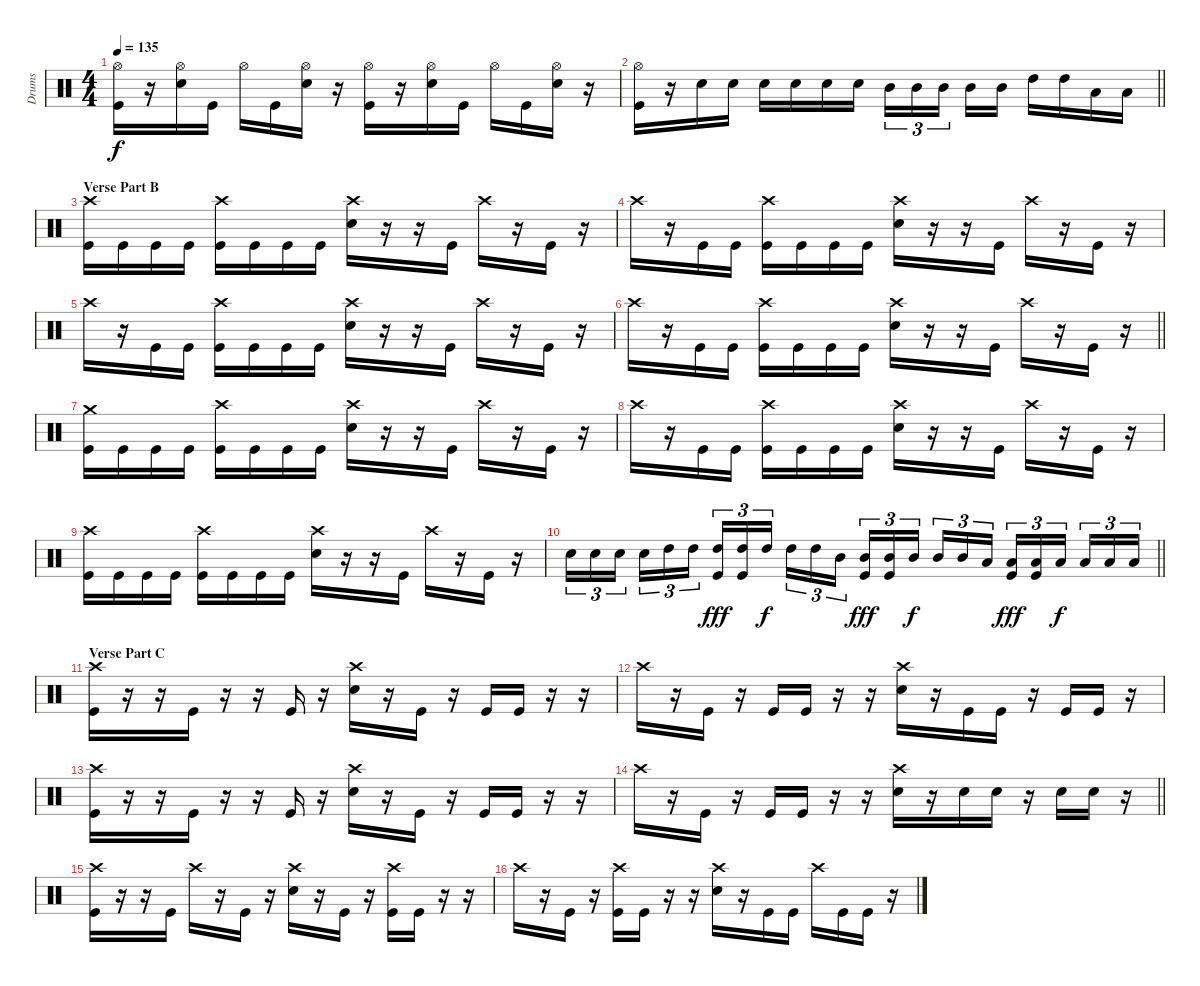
\track ("Drums" "Drums") {instrument percussion}
\staff {score}
\articulation defaults
\ts (4 4)
\tempo 135
\clef neutral
\ks c
("Hi-Hat (open)" "Kick (hit)").16{dy f} r.16 ("Hi-Hat (open)" "Snare (hit) 2").16 "Kick (hit)".16 "Hi-Hat (open)".16 "Kick (hit)".16 ("Hi-Hat (open)" "Snare (hit) 2").16 r.16 ("Hi-Hat (open)" "Kick (hit)").16 r.16 ("Hi-Hat (open)" "Snare (hit) 2").16 "Kick (hit)".16 "Hi-Hat (open)".16 "Kick (hit)".16 ("Hi-Hat (open)" "Snare (hit) 2").16 r.16 |
\barLineRight lightlight
("Hi-Hat (open)" "Kick (hit)").16 r.16 "Snare (hit) 2".16 "Snare (hit) 2".16 "Snare (hit) 2".16 "Snare (hit) 2".16 "Snare (hit) 2".16 "Snare (hit) 2".16 "Mid Tom (hit)".16{tu (3 2)} "Mid Tom (hit)".16{tu (3 2)} "Mid Tom (hit)".16{tu (3 2)} "Mid Tom (hit)".16 "Mid Tom (hit)".16 "High Tom (hit)".16 "High Tom (hit)".16 "Low Floor Tom (hit)".16 "Low Floor Tom (hit)".16 |
\section ("" "Verse Part B")
("Crash high (hit)" "Kick (hit)").16 "Kick (hit)".16 "Kick (hit)".16 "Kick (hit)".16 ("Crash high (hit)" "Kick (hit)").16 "Kick (hit)".16 "Kick (hit)".16 "Kick (hit)".16 ("Crash high (hit)" "Snare (hit) 2").16 r.16 r.16 "Kick (hit)".16 "Crash high (hit)".16 r.16 "Kick (hit)".16 r.16 |
"Crash high (hit)".16 r.16 "Kick (hit)".16 "Kick (hit)".16 ("Crash high (hit)" "Kick (hit)").16 "Kick (hit)".16 "Kick (hit)".16 "Kick (hit)".16 ("Crash high (hit)" "Snare (hit) 2").16 r.16 r.16 "Kick (hit)".16 "Crash high (hit)".16 r.16 "Kick (hit)".16 r.16 |
"Crash high (hit)".16 r.16 "Kick (hit)".16 "Kick (hit)".16 ("Crash high (hit)" "Kick (hit)").16 "Kick (hit)".16 "Kick (hit)".16 "Kick (hit)".16 ("Crash high (hit)" "Snare (hit) 2").16 r.16 r.16 "Kick (hit)".16 "Crash high (hit)".16 r.16 "Kick (hit)".16 r.16 |
\barLineRight lightlight "Crash high (hit)".16
r.16 "Kick (hit)".16 "Kick (hit)".16 ("Crash high (hit)" "Kick (hit)").16 "Kick (hit)".16 "Kick (hit)".16 "Kick (hit)".16 ("Crash high (hit)" "Snare (hit) 2").16 r.16 r.16 "Kick (hit)".16 "Crash high (hit)".16 r.16 "Kick (hit)".16 r.16 |
("Crash medium (hit)" "Kick (hit)").16 "Kick (hit)".16 "Kick (hit)".16 "Kick (hit)".16 ("Crash high (hit)" "Kick (hit)").16 "Kick (hit)".16 "Kick (hit)".16 "Kick (hit)".16 ("Crash high (hit)" "Snare (hit) 2").16 r.16 r.16 "Kick (hit)".16 "Crash high (hit)".16 r.16 "Kick (hit)".16 r.16 |
"Crash high (hit)".16 r.16 "Kick (hit)".16 "Kick (hit)".16 ("Crash high (hit)" "Kick (hit)").16 "Kick (hit)".16 "Kick (hit)".16 "Kick (hit)".16 ("Crash high (hit)" "Snare (hit) 2").16 r.16 r.16 "Kick (hit)".16 "Crash high (hit)".16 r.16 "Kick (hit)".16 r.16 |
("Crash high (hit)" "Kick (hit)").16 "Kick (hit)".16 "Kick (hit)".16 "Kick (hit)".16 ("Crash high (hit)" "Kick (hit)").16 "Kick (hit)".16 "Kick (hit)".16 "Kick (hit)".16 ("Crash high (hit)" "Snare (hit) 2").16 r.16 r.16 "Kick (hit)".16 "Crash high (hit)".16 r.16 "Kick (hit)".16 r.16 |
\barLineRight lightlight "Snare (hit) 2".16{tu (3 2)} "Snare (hit) 2".16{tu (3 2)} "Snare (hit) 2".16{tu (3 2)} "Snare (hit) 2".16{tu (3 2)} "High Tom (hit)".16{tu (3 2)} "High Tom (hit)".16{tu (3 2)}
("High Tom (hit)" "Kick (hit)").16{tu (3 2) dy fff} ("High Tom (hit)" "Kick (hit)").16{tu (3 2)} "High Tom (hit)".16{tu (3 2) dy f} "High Tom (hit)".16{tu (3 2)} "High Tom (hit)".16{tu (3 2)} "Mid Tom (hit)".16{tu (3 2)} ("Mid Tom (hit)" "Kick (hit)").16{tu (3 2) dy fff} ("Mid Tom (hit)" "Kick (hit)").16{tu (3 2)} "Mid Tom (hit)".16{tu (3 2) dy f} "Mid Tom (hit)".16{tu (3 2)} "Mid Tom (hit)".16{tu (3 2)} "Low Floor Tom (hit)".16{tu (3 2)} ("Low Floor Tom (hit)" "Kick (hit)").16{tu (3 2) dy fff} ("Low Floor Tom (hit)" "Kick (hit)").16{tu (3 2)} "Low Floor Tom (hit)".16{tu (3 2) dy f} "Low Floor Tom (hit)".16{tu (3 2)} "Low Floor Tom (hit)".16{tu (3 2)} "Low Floor Tom (hit)".16{tu (3 2)} |
\section ("" "Verse Part C")
("Crash high (hit)" "Kick (hit)").16 r.16 r.16 "Kick (hit)".16 r.16 r.16 "Kick (hit)".16 r.16 ("Crash high (hit)" "Snare (hit) 2").16 r.16 "Kick (hit)".16 r.16 "Kick (hit)".16 "Kick (hit)".16 r.16 r.16 |
"Crash high (hit)".16 r.16 "Kick (hit)".16 r.16 "Kick (hit)".16 "Kick (hit)".16 r.16 r.16 ("Crash high (hit)" "Snare (hit) 2").16 r.16 "Kick (hit)".16 "Kick (hit)".16 r.16 "Kick (hit)".16 "Kick (hit)".16 r.16 |
("Crash high (hit)" "Kick (hit)").16 r.16 r.16 "Kick (hit)".16 r.16 r.16 "Kick (hit)".16 r.16 ("Crash high (hit)" "Snare (hit) 2").16 r.16 "Kick (hit)".16 r.16 "Kick (hit)".16 "Kick (hit)".16 r.16 r.16 |
\barLineRight lightlight "Crash high (hit)".16
r.16 "Kick (hit)".16 r.16 "Kick (hit)".16 "Kick (hit)".16 r.16 r.16 ("Crash high (hit)" "Snare (hit) 2").16 r.16 "Snare (hit) 2".16 "Snare (hit) 2".16 r.16 "Snare (hit) 2".16 "Snare (hit) 2".16 r.16 |
("Crash high (hit)" "Kick (hit)").16 r.16 r.16 "Kick (hit)".16 "Crash high (hit)".16 r.16 "Kick (hit)".16 r.16 ("Crash high (hit)" "Snare (hit) 2").16 r.16 "Kick (hit)".16 r.16 ("Crash high (hit)" "Kick (hit)").16 "Kick (hit)".16 r.16 r.16 |
"Crash high (hit)".16 r.16 "Kick (hit)".16 r.16 ("Crash high (hit)" "Kick (hit)").16 "Kick (hit)".16 r.16 r.16 ("Crash high (hit)" "Snare (hit) 2").16 r.16 "Kick (hit)".16 "Kick (hit)".16 "Crash high (hit)".16 "Kick (hit)".16 "Kick (hit)".16 r.16
